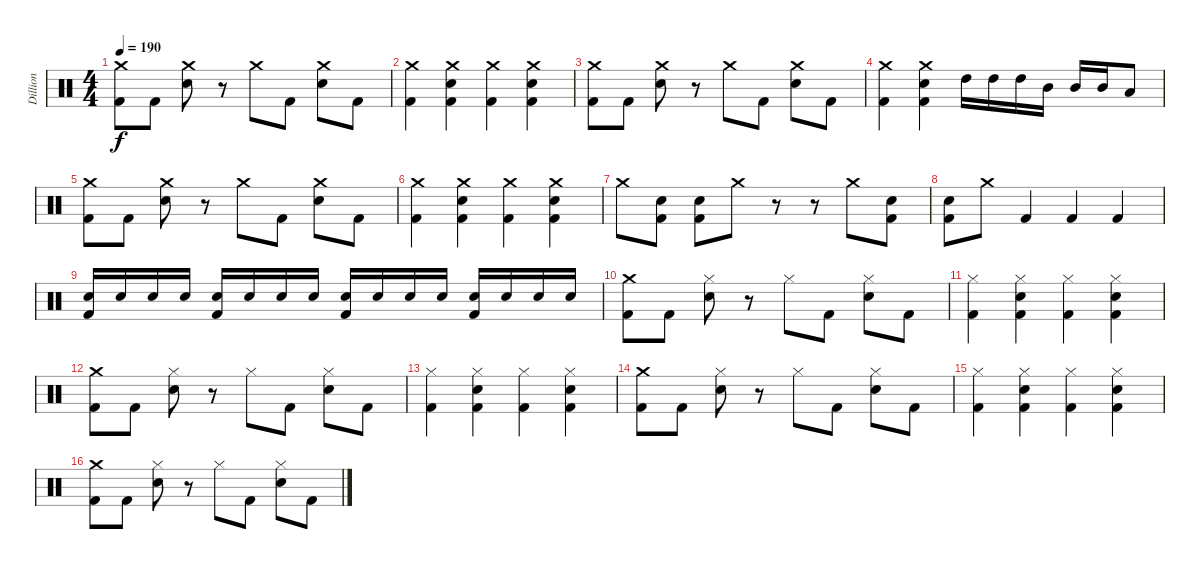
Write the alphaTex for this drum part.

\track ("Dillion" "Dillion") {instrument percussion}
\staff {score}
\articulation defaults
\ts (4 4)
\tempo 190
\clef neutral
\ks c
("Crash medium (hit)" "Kick (hit) 2").8{dy f} "Kick (hit) 2".8 ("Crash medium (hit)" "Electric Snare (hit)").8 r.8 "Crash medium (hit)".8 "Kick (hit) 2".8 ("Crash medium (hit)" "Electric Snare (hit)").8 "Kick (hit) 2".8 |
("Crash medium (hit)" "Kick (hit) 2").4 ("Crash medium (hit)" "Electric Snare (hit)" "Kick (hit) 2").4 ("Crash medium (hit)" "Kick (hit) 2").4 ("Crash medium (hit)" "Electric Snare (hit)" "Kick (hit) 2").4 |
("Crash medium (hit)" "Kick (hit) 2").8 "Kick (hit) 2".8 ("Crash medium (hit)" "Electric Snare (hit)").8 r.8 "Crash medium (hit)".8 "Kick (hit) 2".8 ("Crash medium (hit)" "Electric Snare (hit)").8 "Kick (hit) 2".8 |
("Crash medium (hit)" "Kick (hit) 2").4 ("Crash medium (hit)" "Electric Snare (hit)" "Kick (hit) 2").4 "High Tom (hit)".16 "High Tom (hit)".16 "High Tom (hit)".16 "Mid Tom (hit)".16 "Mid Tom (hit)".16 "Mid Tom (hit)".16 "Low Tom (hit)".8 |
("Crash medium (hit)" "Kick (hit) 2").8 "Kick (hit) 2".8 ("Crash medium (hit)" "Electric Snare (hit)").8 r.8 "Crash medium (hit)".8 "Kick (hit) 2".8 ("Crash medium (hit)" "Electric Snare (hit)").8 "Kick (hit) 2".8 |
("Crash medium (hit)" "Kick (hit) 2").4 ("Crash medium (hit)" "Electric Snare (hit)" "Kick (hit) 2").4 ("Crash medium (hit)" "Kick (hit) 2").4 ("Crash medium (hit)" "Electric Snare (hit)" "Kick (hit) 2").4 |
"Crash medium (hit)".8 ("Electric Snare (hit)" "Kick (hit) 2").8 ("Electric Snare (hit)" "Kick (hit) 2").8 "Crash medium (hit)".8 r.8 r.8 "Crash medium (hit)".8 ("Electric Snare (hit)" "Kick (hit) 2").8 |
("Electric Snare (hit)" "Kick (hit) 2").8 "Crash medium (hit)".8 "Kick (hit) 2".4 "Kick (hit) 2".4 "Kick (hit) 2".4 |
("Electric Snare (hit)" "Kick (hit) 2").16 "Electric Snare (hit)".16 "Electric Snare (hit)".16 "Electric Snare (hit)".16 ("Electric Snare (hit)" "Kick (hit) 2").16 "Electric Snare (hit)".16 "Electric Snare (hit)".16 "Electric Snare (hit)".16 ("Electric Snare (hit)" "Kick (hit) 2").16 "Electric Snare (hit)".16 "Electric Snare (hit)".16 "Electric Snare (hit)".16 ("Electric Snare (hit)" "Kick (hit) 2").16 "Electric Snare (hit)".16 "Electric Snare (hit)".16 "Electric Snare (hit)".16 |
("Crash medium (hit)" "Kick (hit) 2").8 "Kick (hit) 2".8 ("Hi-Hat (closed)" "Electric Snare (hit)").8 r.8 "Hi-Hat (closed)".8 "Kick (hit) 2".8 ("Hi-Hat (closed)" "Electric Snare (hit)").8 "Kick (hit) 2".8 |
("Hi-Hat (closed)" "Kick (hit) 2").4 ("Hi-Hat (closed)" "Electric Snare (hit)" "Kick (hit) 2").4 ("Hi-Hat (closed)" "Kick (hit) 2").4 ("Hi-Hat (closed)" "Electric Snare (hit)" "Kick (hit) 2").4 |
("Crash medium (hit)" "Kick (hit) 2").8 "Kick (hit) 2".8 ("Hi-Hat (closed)" "Electric Snare (hit)").8 r.8 "Hi-Hat (closed)".8 "Kick (hit) 2".8 ("Hi-Hat (closed)" "Electric Snare (hit)").8 "Kick (hit) 2".8 |
("Hi-Hat (closed)" "Kick (hit) 2").4 ("Hi-Hat (closed)" "Electric Snare (hit)" "Kick (hit) 2").4 ("Hi-Hat (closed)" "Kick (hit) 2").4 ("Hi-Hat (closed)" "Electric Snare (hit)" "Kick (hit) 2").4 |
("Crash medium (hit)" "Kick (hit) 2").8 "Kick (hit) 2".8 ("Hi-Hat (closed)" "Electric Snare (hit)").8 r.8 "Hi-Hat (closed)".8 "Kick (hit) 2".8 ("Hi-Hat (closed)" "Electric Snare (hit)").8 "Kick (hit) 2".8 |
("Hi-Hat (closed)" "Kick (hit) 2").4 ("Hi-Hat (closed)" "Electric Snare (hit)" "Kick (hit) 2").4 ("Hi-Hat (closed)" "Kick (hit) 2").4 ("Hi-Hat (closed)" "Electric Snare (hit)" "Kick (hit) 2").4 |
("Crash medium (hit)" "Kick (hit) 2").8 "Kick (hit) 2".8 ("Hi-Hat (closed)" "Electric Snare (hit)").8 r.8 "Hi-Hat (closed)".8 "Kick (hit) 2".8 ("Hi-Hat (closed)" "Electric Snare (hit)").8 "Kick (hit) 2".8
